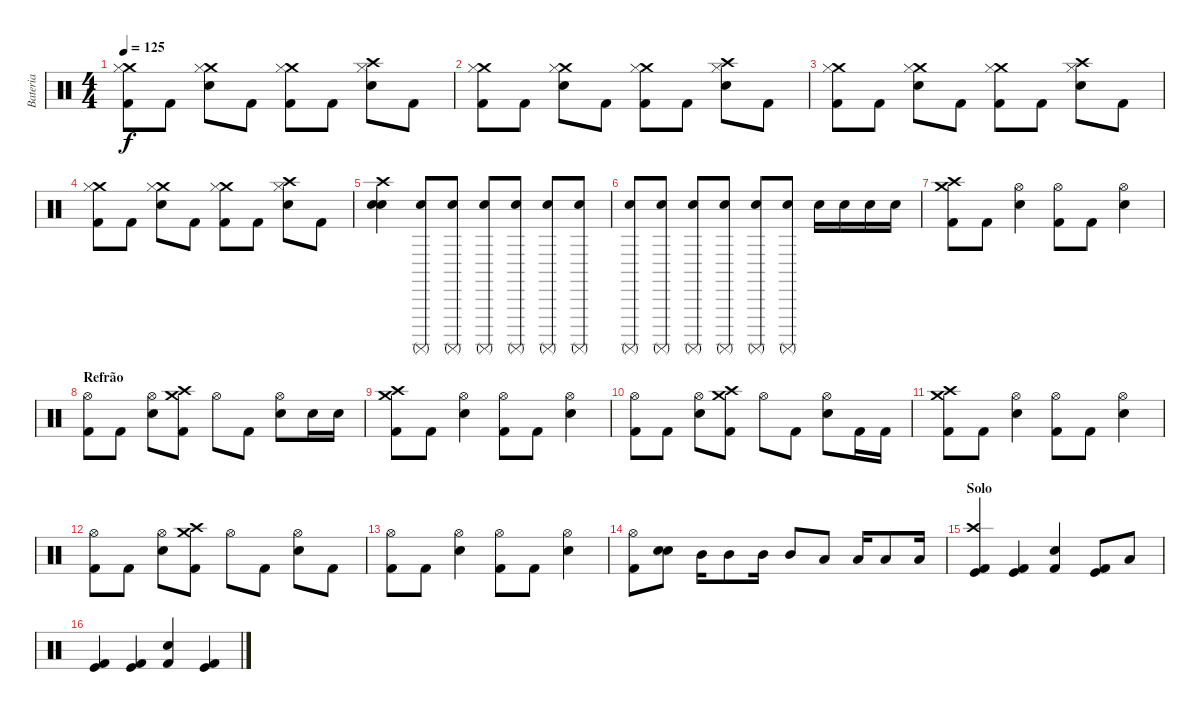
\track ("Bateria" "Bateria") {instrument percussion}
\staff {score}
\articulation defaults
\ts (4 4)
\tempo 125
\clef neutral
\ks c
("Crash medium (hit)" "Kick (hit) 2" "Hi-Hat (closed)").8{dy f} "Kick (hit) 2".8 ("Crash medium (hit)" "Electric Snare (hit)" "Hi-Hat (closed)").8 "Kick (hit) 2".8 ("Crash medium (hit)" "Kick (hit) 2" "Hi-Hat (closed)").8 "Kick (hit) 2".8 ("Crash high (hit)" "Electric Snare (hit)" "Hi-Hat (closed)").8 "Kick (hit) 2".8 |
("Crash medium (hit)" "Kick (hit) 2" "Hi-Hat (closed)").8 "Kick (hit) 2".8 ("Crash medium (hit)" "Electric Snare (hit)" "Hi-Hat (closed)").8 "Kick (hit) 2".8 ("Crash medium (hit)" "Kick (hit) 2" "Hi-Hat (closed)").8 "Kick (hit) 2".8 ("Crash high (hit)" "Electric Snare (hit)" "Hi-Hat (closed)").8 "Kick (hit) 2".8 |
("Crash medium (hit)" "Kick (hit) 2" "Hi-Hat (closed)").8 "Kick (hit) 2".8 ("Crash medium (hit)" "Electric Snare (hit)" "Hi-Hat (closed)").8 "Kick (hit) 2".8 ("Crash medium (hit)" "Kick (hit) 2" "Hi-Hat (closed)").8 "Kick (hit) 2".8 ("Crash high (hit)" "Electric Snare (hit)" "Hi-Hat (closed)").8 "Kick (hit) 2".8 |
("Crash medium (hit)" "Kick (hit) 2" "Hi-Hat (closed)").8 "Kick (hit) 2".8 ("Crash medium (hit)" "Electric Snare (hit)" "Hi-Hat (closed)").8 "Kick (hit) 2".8 ("Crash medium (hit)" "Kick (hit) 2" "Hi-Hat (closed)").8 "Kick (hit) 2".8 ("Crash high (hit)" "Electric Snare (hit)" "Hi-Hat (closed)").8 "Kick (hit) 2".8 |
("Crash high (hit)" "Snare (hit) 2" "Electric Snare (hit)").4 ("Surdo (mute)" "Electric Snare (hit)").8{volume 3} ("Surdo (mute)" "Electric Snare (hit)").8{volume 4} ("Surdo (mute)" "Electric Snare (hit)").8{volume 5} ("Surdo (mute)" "Electric Snare (hit)").8{volume 6} ("Surdo (mute)" "Electric Snare (hit)").8{volume 7} ("Surdo (mute)" "Electric Snare (hit)").8{volume 8} |
("Surdo (mute)" "Electric Snare (hit)").8{volume 10} ("Surdo (mute)" "Electric Snare (hit)").8{volume 11} ("Surdo (mute)" "Electric Snare (hit)").8{volume 12} ("Surdo (mute)" "Electric Snare (hit)").8{volume 13} ("Surdo (mute)" "Electric Snare (hit)").8{volume 14} ("Surdo (mute)" "Electric Snare (hit)").8{volume 15} "Electric Snare (hit)".16{volume 13} "Electric Snare (hit)".16 "Electric Snare (hit)".16 "Electric Snare (hit)".16 |
("Crash high (hit)" "Crash medium (hit)" "Kick (hit) 2").8 "Kick (hit) 2".8 ("Electric Snare (hit)" "Hi-Hat (open)").4 ("Kick (hit) 2" "Hi-Hat (open)").8 "Kick (hit) 2".8 ("Electric Snare (hit)" "Hi-Hat (open)").4 |
\section ("" "Refrão")
("Kick (hit) 2" "Hi-Hat (open)").8 "Kick (hit) 2".8 ("Electric Snare (hit)" "Hi-Hat (open)").8 ("Crash high (hit)" "Crash medium (hit)" "Kick (hit) 2").8 "Hi-Hat (open)".8 "Kick (hit) 2".8 ("Electric Snare (hit)" "Hi-Hat (open)").8 "Electric Snare (hit)".16 "Electric Snare (hit)".16 |
("Crash high (hit)" "Crash medium (hit)" "Kick (hit) 2").8 "Kick (hit) 2".8 ("Electric Snare (hit)" "Hi-Hat (open)").4 ("Kick (hit) 2" "Hi-Hat (open)").8 "Kick (hit) 2".8 ("Electric Snare (hit)" "Hi-Hat (open)").4 |
("Kick (hit) 2" "Hi-Hat (open)").8 "Kick (hit) 2".8 ("Electric Snare (hit)" "Hi-Hat (open)").8 ("Crash high (hit)" "Crash medium (hit)" "Kick (hit) 2").8 "Hi-Hat (open)".8 "Kick (hit) 2".8 ("Electric Snare (hit)" "Hi-Hat (open)").8 "Kick (hit) 2".16 "Kick (hit) 2".16 |
("Crash high (hit)" "Crash medium (hit)" "Kick (hit) 2").8 "Kick (hit) 2".8 ("Electric Snare (hit)" "Hi-Hat (open)").4 ("Kick (hit) 2" "Hi-Hat (open)").8 "Kick (hit) 2".8 ("Electric Snare (hit)" "Hi-Hat (open)").4 |
("Kick (hit) 2" "Hi-Hat (open)").8 "Kick (hit) 2".8 ("Electric Snare (hit)" "Hi-Hat (open)").8 ("Crash high (hit)" "Crash medium (hit)" "Kick (hit) 2").8 "Hi-Hat (open)".8 "Kick (hit) 2".8 ("Electric Snare (hit)" "Hi-Hat (open)").8 "Kick (hit) 2".8 |
("Kick (hit) 2" "Hi-Hat (open)").8 "Kick (hit) 2".8 ("Electric Snare (hit)" "Hi-Hat (open)").4 ("Kick (hit) 2" "Hi-Hat (open)").8 "Kick (hit) 2".8 ("Electric Snare (hit)" "Hi-Hat (open)").4 |
("Kick (hit) 2" "Hi-Hat (open)").8 ("Snare (hit) 2" "Electric Snare (hit)").8 "Mid Tom (hit)".16 "Mid Tom (hit)".8 "Mid Tom (hit)".16 "Mid Tom (hit)".8 "Low Tom (hit)".8 "Low Tom (hit)".16 "Low Tom (hit)".8 "Low Tom (hit)".16 |
\section ("" "Solo")
("Crash high (hit)" "Kick (hit)" "Kick (hit) 2").4 ("Kick (hit)" "Kick (hit) 2").4 ("Electric Snare (hit)" "Kick (hit) 2").4 ("Kick (hit)" "Kick (hit) 2").8 "Low Tom (hit)".8 |
("Kick (hit)" "Kick (hit) 2").4 ("Kick (hit)" "Kick (hit) 2").4 ("Electric Snare (hit)" "Kick (hit) 2").4 ("Kick (hit)" "Kick (hit) 2").4
